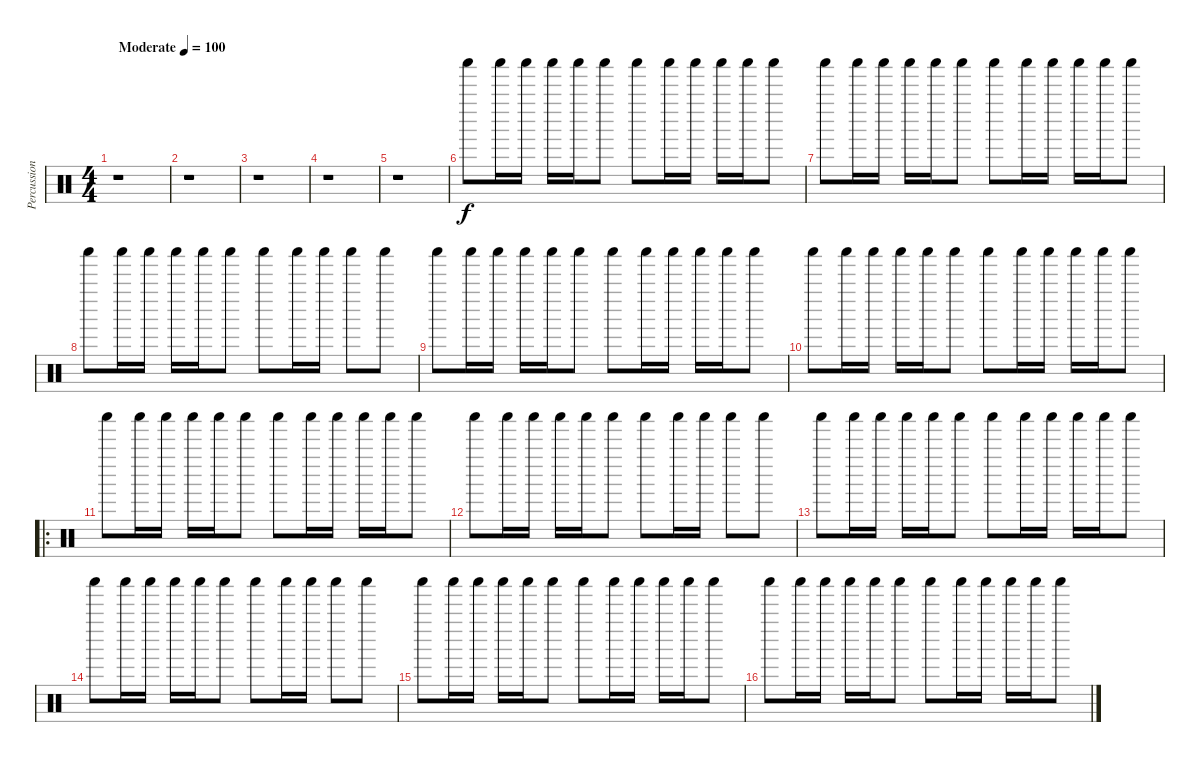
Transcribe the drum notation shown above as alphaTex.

\track ("Percussion" "Percussion") {instrument percussion}
\staff {score}
\articulation defaults
\ts (4 4)
\tempo (100 "Moderate")
\clef neutral
\ks c
r.1{dy f} |
r.1 |
r.1 |
r.1 |
r.1 |
"Shaker (hit)".8 "Shaker (hit)".16 "Shaker (hit)".16 "Shaker (hit)".16 "Shaker (hit)".16 "Shaker (hit)".8 "Shaker (hit)".8 "Shaker (hit)".16 "Shaker (hit)".16 "Shaker (hit)".16 "Shaker (hit)".16 "Shaker (hit)".8 |
"Shaker (hit)".8 "Shaker (hit)".16 "Shaker (hit)".16 "Shaker (hit)".16 "Shaker (hit)".16 "Shaker (hit)".8 "Shaker (hit)".8 "Shaker (hit)".16 "Shaker (hit)".16 "Shaker (hit)".16 "Shaker (hit)".16 "Shaker (hit)".8 |
"Shaker (hit)".8 "Shaker (hit)".16 "Shaker (hit)".16 "Shaker (hit)".16 "Shaker (hit)".16 "Shaker (hit)".8 "Shaker (hit)".8 "Shaker (hit)".16 "Shaker (hit)".16 "Shaker (hit)".8 "Shaker (hit)".8 |
"Shaker (hit)".8 "Shaker (hit)".16 "Shaker (hit)".16 "Shaker (hit)".16 "Shaker (hit)".16 "Shaker (hit)".8 "Shaker (hit)".8 "Shaker (hit)".16 "Shaker (hit)".16 "Shaker (hit)".16 "Shaker (hit)".16 "Shaker (hit)".8 |
"Shaker (hit)".8 "Shaker (hit)".16 "Shaker (hit)".16 "Shaker (hit)".16 "Shaker (hit)".16 "Shaker (hit)".8 "Shaker (hit)".8 "Shaker (hit)".16 "Shaker (hit)".16 "Shaker (hit)".16 "Shaker (hit)".16 "Shaker (hit)".8 |
\ro "Shaker (hit)".8 "Shaker (hit)".16 "Shaker (hit)".16 "Shaker (hit)".16 "Shaker (hit)".16 "Shaker (hit)".8 "Shaker (hit)".8 "Shaker (hit)".16 "Shaker (hit)".16 "Shaker (hit)".16 "Shaker (hit)".16 "Shaker (hit)".8
|
"Shaker (hit)".8 "Shaker (hit)".16 "Shaker (hit)".16 "Shaker (hit)".16 "Shaker (hit)".16 "Shaker (hit)".8 "Shaker (hit)".8 "Shaker (hit)".16 "Shaker (hit)".16 "Shaker (hit)".8 "Shaker (hit)".8 |
"Shaker (hit)".8 "Shaker (hit)".16 "Shaker (hit)".16 "Shaker (hit)".16 "Shaker (hit)".16 "Shaker (hit)".8 "Shaker (hit)".8 "Shaker (hit)".16 "Shaker (hit)".16 "Shaker (hit)".16 "Shaker (hit)".16 "Shaker (hit)".8 |
"Shaker (hit)".8 "Shaker (hit)".16 "Shaker (hit)".16 "Shaker (hit)".16 "Shaker (hit)".16 "Shaker (hit)".8 "Shaker (hit)".8 "Shaker (hit)".16 "Shaker (hit)".16 "Shaker (hit)".8 "Shaker (hit)".8 |
"Shaker (hit)".8 "Shaker (hit)".16 "Shaker (hit)".16 "Shaker (hit)".16 "Shaker (hit)".16 "Shaker (hit)".8 "Shaker (hit)".8 "Shaker (hit)".16 "Shaker (hit)".16 "Shaker (hit)".16 "Shaker (hit)".16 "Shaker (hit)".8 |
"Shaker (hit)".8 "Shaker (hit)".16 "Shaker (hit)".16 "Shaker (hit)".16 "Shaker (hit)".16 "Shaker (hit)".8 "Shaker (hit)".8 "Shaker (hit)".16 "Shaker (hit)".16 "Shaker (hit)".16 "Shaker (hit)".16 "Shaker (hit)".8
